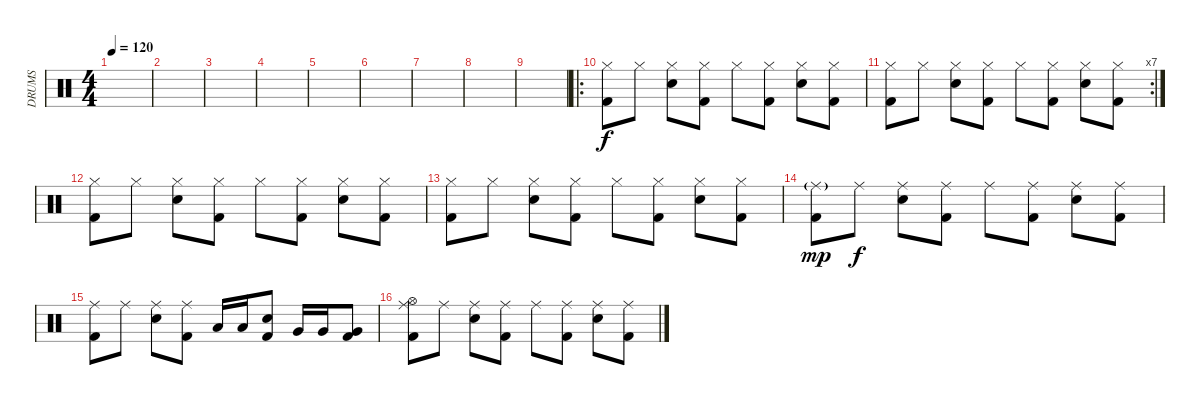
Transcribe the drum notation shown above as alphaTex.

\track ("DRUMS" "DRUMS") {instrument percussion}
\staff {score}
\articulation defaults
\ts (4 4)
\tempo 120
\clef neutral
\ks c
|
|
|
|
|
|
|
|
|
\ro
("Kick (hit) 2" "Hi-Hat (closed)").8 "Hi-Hat (closed)".8 ("Snare (hit) 2" "Hi-Hat (closed)").8 ("Kick (hit) 2" "Hi-Hat (closed)").8 "Hi-Hat (closed)".8 ("Kick (hit) 2" "Hi-Hat (closed)").8 ("Snare (hit) 2" "Hi-Hat (closed)").8 ("Kick (hit) 2" "Hi-Hat (closed)").8 |
\rc 7
("Kick (hit) 2" "Hi-Hat (closed)").8 "Hi-Hat (closed)".8 ("Snare (hit) 2" "Hi-Hat (closed)").8 ("Kick (hit) 2" "Hi-Hat (closed)").8 "Hi-Hat (closed)".8 ("Kick (hit) 2" "Hi-Hat (closed)").8 ("Snare (hit) 2" "Hi-Hat (closed)").8 ("Kick (hit) 2" "Hi-Hat (closed)").8 |
("Kick (hit) 2" "Hi-Hat (closed)").8 "Hi-Hat (closed)".8 ("Snare (hit) 2" "Hi-Hat (closed)").8 ("Kick (hit) 2" "Hi-Hat (closed)").8 "Hi-Hat (closed)".8 ("Kick (hit) 2" "Hi-Hat (closed)").8 ("Snare (hit) 2" "Hi-Hat (closed)").8 ("Kick (hit) 2" "Hi-Hat (closed)").8 |
("Kick (hit) 2" "Hi-Hat (closed)").8 "Hi-Hat (closed)".8 ("Snare (hit) 2" "Hi-Hat (closed)").8 ("Kick (hit) 2" "Hi-Hat (closed)").8 "Hi-Hat (closed)".8 ("Kick (hit) 2" "Hi-Hat (closed)").8 ("Snare (hit) 2" "Hi-Hat (closed)").8 ("Kick (hit) 2" "Hi-Hat (closed)").8 |
("Kick (hit) 2" "Ride (middle)"{g}).8{dy mp} "Ride (middle)".8{dy f} ("Snare (hit) 2" "Ride (middle)").8 ("Kick (hit) 2" "Ride (middle)").8 "Ride (middle)".8 ("Kick (hit) 2" "Ride (middle)").8 ("Snare (hit) 2" "Ride (middle)").8 ("Kick (hit) 2" "Ride (middle)").8 |
("Kick (hit) 2" "Ride (middle)").8 "Ride (middle)".8 ("Snare (hit) 2" "Ride (middle)").8 ("Kick (hit) 2" "Ride (middle)").8 "Low Tom (hit)".16 "Low Tom (hit)".16 ("Kick (hit) 2" "Snare (hit) 2").8 "Very Low Tom (hit)".16 "Very Low Tom (hit)".16 ("Kick (hit) 2" "Very Low Tom (hit)").8 |
("Kick (hit) 2" "Ride (middle)" "Hi-Hat (open)").8 "Ride (middle)".8 ("Snare (hit) 2" "Ride (middle)").8 ("Kick (hit) 2" "Ride (middle)").8 "Ride (middle)".8 ("Kick (hit) 2" "Ride (middle)").8 ("Snare (hit) 2" "Ride (middle)").8 ("Kick (hit) 2" "Ride (middle)").8
